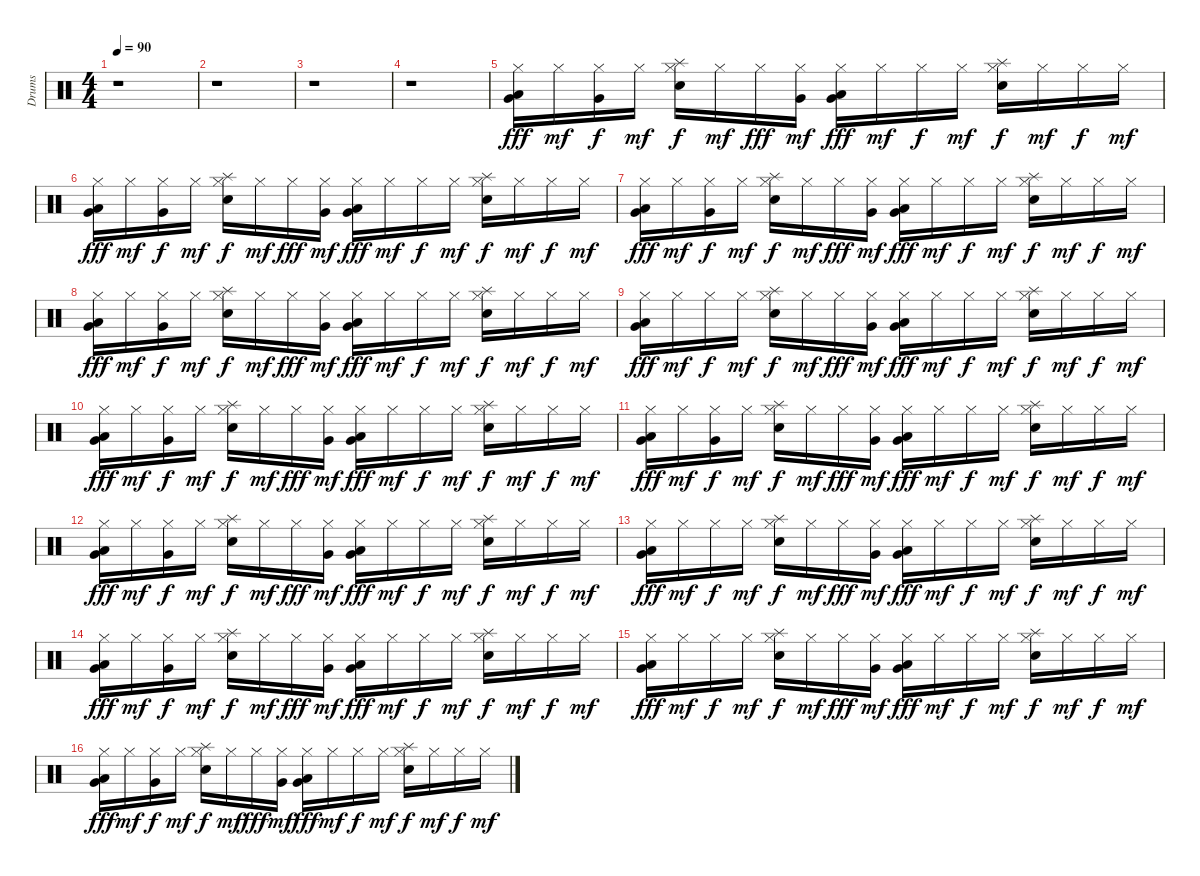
\track ("Drums" "Drums") {instrument percussion}
\staff {score}
\articulation defaults
\ts (4 4)
\tempo 90
\clef neutral
\ks c
r.1{dy mf} |
r.1 |
r.1 |
r.1 |
("Very Low Tom (hit)" "Low Floor Tom (hit)" "Hi-Hat (closed)").16{dy fff} "Hi-Hat (closed)".16{dy mf} ("Very Low Tom (hit)" "Hi-Hat (closed)").16{dy f} "Hi-Hat (closed)".16{dy mf} ("Electric Snare (hit)" "Splash (hit)" "Hi-Hat (closed)").16{dy f} "Hi-Hat (closed)".16{dy mf} "Hi-Hat (closed)".16{dy fff} ("Very Low Tom (hit)" "Hi-Hat (closed)").16{dy mf} ("Very Low Tom (hit)" "Low Floor Tom (hit)" "Hi-Hat (closed)").16{dy fff} "Hi-Hat (closed)".16{dy mf} "Hi-Hat (closed)".16{dy f} "Hi-Hat (closed)".16{dy mf} ("Electric Snare (hit)" "Splash (hit)" "Hi-Hat (closed)").16{dy f} "Hi-Hat (closed)".16{dy mf} "Hi-Hat (closed)".16{dy f} "Hi-Hat (closed)".16{dy mf} |
("Very Low Tom (hit)" "Low Floor Tom (hit)" "Hi-Hat (closed)").16{dy fff} "Hi-Hat (closed)".16{dy mf} ("Very Low Tom (hit)" "Hi-Hat (closed)").16{dy f} "Hi-Hat (closed)".16{dy mf} ("Electric Snare (hit)" "Splash (hit)" "Hi-Hat (closed)").16{dy f} "Hi-Hat (closed)".16{dy mf} "Hi-Hat (closed)".16{dy fff} ("Very Low Tom (hit)" "Hi-Hat (closed)").16{dy mf} ("Very Low Tom (hit)" "Low Floor Tom (hit)" "Hi-Hat (closed)").16{dy fff} "Hi-Hat (closed)".16{dy mf} "Hi-Hat (closed)".16{dy f} "Hi-Hat (closed)".16{dy mf} ("Electric Snare (hit)" "Splash (hit)" "Hi-Hat (closed)").16{dy f} "Hi-Hat (closed)".16{dy mf} "Hi-Hat (closed)".16{dy f} "Hi-Hat (closed)".16{dy mf} |
("Very Low Tom (hit)" "Low Floor Tom (hit)" "Hi-Hat (closed)").16{dy fff} "Hi-Hat (closed)".16{dy mf} ("Very Low Tom (hit)" "Hi-Hat (closed)").16{dy f} "Hi-Hat (closed)".16{dy mf} ("Electric Snare (hit)" "Splash (hit)" "Hi-Hat (closed)").16{dy f} "Hi-Hat (closed)".16{dy mf} "Hi-Hat (closed)".16{dy fff} ("Very Low Tom (hit)" "Hi-Hat (closed)").16{dy mf} ("Very Low Tom (hit)" "Low Floor Tom (hit)" "Hi-Hat (closed)").16{dy fff} "Hi-Hat (closed)".16{dy mf} "Hi-Hat (closed)".16{dy f} "Hi-Hat (closed)".16{dy mf} ("Electric Snare (hit)" "Splash (hit)" "Hi-Hat (closed)").16{dy f} "Hi-Hat (closed)".16{dy mf} "Hi-Hat (closed)".16{dy f} "Hi-Hat (closed)".16{dy mf} |
("Very Low Tom (hit)" "Low Floor Tom (hit)" "Hi-Hat (closed)").16{dy fff} "Hi-Hat (closed)".16{dy mf} ("Very Low Tom (hit)" "Hi-Hat (closed)").16{dy f} "Hi-Hat (closed)".16{dy mf} ("Electric Snare (hit)" "Splash (hit)" "Hi-Hat (closed)").16{dy f} "Hi-Hat (closed)".16{dy mf} "Hi-Hat (closed)".16{dy fff} ("Very Low Tom (hit)" "Hi-Hat (closed)").16{dy mf} ("Very Low Tom (hit)" "Low Floor Tom (hit)" "Hi-Hat (closed)").16{dy fff} "Hi-Hat (closed)".16{dy mf} "Hi-Hat (closed)".16{dy f} "Hi-Hat (closed)".16{dy mf} ("Electric Snare (hit)" "Splash (hit)" "Hi-Hat (closed)").16{dy f} "Hi-Hat (closed)".16{dy mf} "Hi-Hat (closed)".16{dy f} "Hi-Hat (closed)".16{dy mf} |
("Very Low Tom (hit)" "Low Floor Tom (hit)" "Hi-Hat (closed)").16{dy fff} "Hi-Hat (closed)".16{dy mf} "Hi-Hat (closed)".16{dy f} "Hi-Hat (closed)".16{dy mf} ("Electric Snare (hit)" "Splash (hit)" "Hi-Hat (closed)").16{dy f} "Hi-Hat (closed)".16{dy mf} "Hi-Hat (closed)".16{dy fff} ("Very Low Tom (hit)" "Hi-Hat (closed)").16{dy mf} ("Very Low Tom (hit)" "Low Floor Tom (hit)" "Hi-Hat (closed)").16{dy fff} "Hi-Hat (closed)".16{dy mf} "Hi-Hat (closed)".16{dy f} "Hi-Hat (closed)".16{dy mf} ("Electric Snare (hit)" "Splash (hit)" "Hi-Hat (closed)").16{dy f} "Hi-Hat (closed)".16{dy mf} "Hi-Hat (closed)".16{dy f} "Hi-Hat (closed)".16{dy mf} |
("Very Low Tom (hit)" "Low Floor Tom (hit)" "Hi-Hat (closed)").16{dy fff} "Hi-Hat (closed)".16{dy mf} ("Very Low Tom (hit)" "Hi-Hat (closed)").16{dy f} "Hi-Hat (closed)".16{dy mf} ("Electric Snare (hit)" "Splash (hit)" "Hi-Hat (closed)").16{dy f} "Hi-Hat (closed)".16{dy mf} "Hi-Hat (closed)".16{dy fff} ("Very Low Tom (hit)" "Hi-Hat (closed)").16{dy mf} ("Very Low Tom (hit)" "Low Floor Tom (hit)" "Hi-Hat (closed)").16{dy fff} "Hi-Hat (closed)".16{dy mf} "Hi-Hat (closed)".16{dy f} "Hi-Hat (closed)".16{dy mf} ("Electric Snare (hit)" "Splash (hit)" "Hi-Hat (closed)").16{dy f} "Hi-Hat (closed)".16{dy mf} "Hi-Hat (closed)".16{dy f} "Hi-Hat (closed)".16{dy mf} |
("Very Low Tom (hit)" "Low Floor Tom (hit)" "Hi-Hat (closed)").16{dy fff} "Hi-Hat (closed)".16{dy mf} ("Very Low Tom (hit)" "Hi-Hat (closed)").16{dy f} "Hi-Hat (closed)".16{dy mf} ("Electric Snare (hit)" "Splash (hit)" "Hi-Hat (closed)").16{dy f} "Hi-Hat (closed)".16{dy mf} "Hi-Hat (closed)".16{dy fff} ("Very Low Tom (hit)" "Hi-Hat (closed)").16{dy mf} ("Very Low Tom (hit)" "Low Floor Tom (hit)" "Hi-Hat (closed)").16{dy fff} "Hi-Hat (closed)".16{dy mf} "Hi-Hat (closed)".16{dy f} "Hi-Hat (closed)".16{dy mf} ("Electric Snare (hit)" "Splash (hit)" "Hi-Hat (closed)").16{dy f} "Hi-Hat (closed)".16{dy mf} "Hi-Hat (closed)".16{dy f} "Hi-Hat (closed)".16{dy mf} |
("Very Low Tom (hit)" "Low Floor Tom (hit)" "Hi-Hat (closed)").16{dy fff} "Hi-Hat (closed)".16{dy mf} ("Very Low Tom (hit)" "Hi-Hat (closed)").16{dy f} "Hi-Hat (closed)".16{dy mf} ("Electric Snare (hit)" "Splash (hit)" "Hi-Hat (closed)").16{dy f} "Hi-Hat (closed)".16{dy mf} "Hi-Hat (closed)".16{dy fff} ("Very Low Tom (hit)" "Hi-Hat (closed)").16{dy mf} ("Very Low Tom (hit)" "Low Floor Tom (hit)" "Hi-Hat (closed)").16{dy fff} "Hi-Hat (closed)".16{dy mf} "Hi-Hat (closed)".16{dy f} "Hi-Hat (closed)".16{dy mf} ("Electric Snare (hit)" "Splash (hit)" "Hi-Hat (closed)").16{dy f} "Hi-Hat (closed)".16{dy mf} "Hi-Hat (closed)".16{dy f} "Hi-Hat (closed)".16{dy mf} |
("Very Low Tom (hit)" "Low Floor Tom (hit)" "Hi-Hat (closed)").16{dy fff} "Hi-Hat (closed)".16{dy mf} "Hi-Hat (closed)".16{dy f} "Hi-Hat (closed)".16{dy mf} ("Electric Snare (hit)" "Splash (hit)" "Hi-Hat (closed)").16{dy f} "Hi-Hat (closed)".16{dy mf} "Hi-Hat (closed)".16{dy fff} ("Very Low Tom (hit)" "Hi-Hat (closed)").16{dy mf} ("Very Low Tom (hit)" "Low Floor Tom (hit)" "Hi-Hat (closed)").16{dy fff} "Hi-Hat (closed)".16{dy mf} "Hi-Hat (closed)".16{dy f} "Hi-Hat (closed)".16{dy mf} ("Electric Snare (hit)" "Splash (hit)" "Hi-Hat (closed)").16{dy f} "Hi-Hat (closed)".16{dy mf} "Hi-Hat (closed)".16{dy f} "Hi-Hat (closed)".16{dy mf} |
("Very Low Tom (hit)" "Low Floor Tom (hit)" "Hi-Hat (closed)").16{dy fff} "Hi-Hat (closed)".16{dy mf} ("Very Low Tom (hit)" "Hi-Hat (closed)").16{dy f} "Hi-Hat (closed)".16{dy mf} ("Electric Snare (hit)" "Splash (hit)" "Hi-Hat (closed)").16{dy f} "Hi-Hat (closed)".16{dy mf} "Hi-Hat (closed)".16{dy fff} ("Very Low Tom (hit)" "Hi-Hat (closed)").16{dy mf} ("Very Low Tom (hit)" "Low Floor Tom (hit)" "Hi-Hat (closed)").16{dy fff} "Hi-Hat (closed)".16{dy mf} "Hi-Hat (closed)".16{dy f} "Hi-Hat (closed)".16{dy mf} ("Electric Snare (hit)" "Splash (hit)" "Hi-Hat (closed)").16{dy f} "Hi-Hat (closed)".16{dy mf} "Hi-Hat (closed)".16{dy f} "Hi-Hat (closed)".16{dy mf} |
("Very Low Tom (hit)" "Low Floor Tom (hit)" "Hi-Hat (closed)").16{dy fff} "Hi-Hat (closed)".16{dy mf} "Hi-Hat (closed)".16{dy f} "Hi-Hat (closed)".16{dy mf} ("Electric Snare (hit)" "Splash (hit)" "Hi-Hat (closed)").16{dy f} "Hi-Hat (closed)".16{dy mf} "Hi-Hat (closed)".16{dy fff} ("Very Low Tom (hit)" "Hi-Hat (closed)").16{dy mf} ("Very Low Tom (hit)" "Low Floor Tom (hit)" "Hi-Hat (closed)").16{dy fff} "Hi-Hat (closed)".16{dy mf} "Hi-Hat (closed)".16{dy f} "Hi-Hat (closed)".16{dy mf} ("Electric Snare (hit)" "Splash (hit)" "Hi-Hat (closed)").16{dy f} "Hi-Hat (closed)".16{dy mf} "Hi-Hat (closed)".16{dy f} "Hi-Hat (closed)".16{dy mf} |
("Very Low Tom (hit)" "Low Floor Tom (hit)" "Hi-Hat (closed)").16{dy fff} "Hi-Hat (closed)".16{dy mf} ("Very Low Tom (hit)" "Hi-Hat (closed)").16{dy f} "Hi-Hat (closed)".16{dy mf} ("Electric Snare (hit)" "Splash (hit)" "Hi-Hat (closed)").16{dy f} "Hi-Hat (closed)".16{dy mf} "Hi-Hat (closed)".16{dy fff} ("Very Low Tom (hit)" "Hi-Hat (closed)").16{dy mf} ("Very Low Tom (hit)" "Low Floor Tom (hit)" "Hi-Hat (closed)").16{dy fff} "Hi-Hat (closed)".16{dy mf} "Hi-Hat (closed)".16{dy f} "Hi-Hat (closed)".16{dy mf} ("Electric Snare (hit)" "Splash (hit)" "Hi-Hat (closed)").16{dy f} "Hi-Hat (closed)".16{dy mf} "Hi-Hat (closed)".16{dy f} "Hi-Hat (closed)".16{dy mf}
